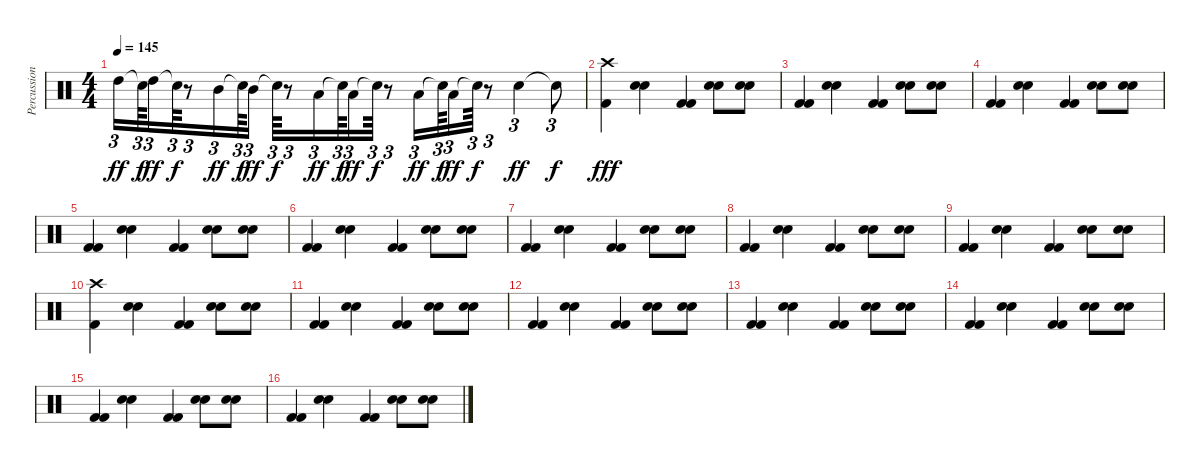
\track ("Percussion ( Keyboard )" "Percussion") {instrument percussion bank 4}
\staff {score}
\articulation defaults
\ts (4 4)
\tempo 145
\clef neutral
\ks c "High Tom (hit)".16{tu (3 2) dy ff} "Snare (hit)"{t}.64{tu (3 2) dy f} "High Tom (hit)".16{tu (3 2) dy ff} "Snare (hit)"{t}.64{tu (3 2) dy f}
r.8{tu (3 2)} "Mid Tom (hit)".16{tu (3 2) dy ff} "Snare (hit)"{t}.64{tu (3 2) dy f} "Mid Tom (hit)".16{tu (3 2) dy ff} "Snare (hit)"{t}.64{tu (3 2) dy f} r.8{tu (3 2)} "Low Tom (hit)".16{tu (3 2) dy ff} "Snare (hit)"{t}.64{tu (3 2) dy f} "Low Tom (hit)".16{tu (3 2) dy ff} "Snare (hit)"{t}.64{tu (3 2) dy f} r.8{tu (3 2)} "Low Floor Tom (hit)".16{tu (3 2) dy ff} "Snare (hit)"{t}.64{tu (3 2) dy f} "Low Floor Tom (hit)".16{tu (3 2) dy ff} "Snare (hit)"{t}.64{tu (3 2) dy f} r.8{tu (3 2)} "Hand Clap (hit)".4{tu (3 2) dy ff} "Snare (hit)"{t}.8{tu (3 2) dy f} |
("Crash high (hit)" "Kick (hit) 2").4{dy fff} ("Electric Snare (hit)" "Hand Clap (hit)").4 ("Kick (hit) 2" "Kick (hit) 2").4 ("Electric Snare (hit)" "Hand Clap (hit)").8 ("Electric Snare (hit)" "Hand Clap (hit)").8 |
("Kick (hit) 2" "Kick (hit) 2").4 ("Electric Snare (hit)" "Hand Clap (hit)").4 ("Kick (hit) 2" "Kick (hit) 2").4 ("Electric Snare (hit)" "Hand Clap (hit)").8 ("Electric Snare (hit)" "Hand Clap (hit)").8 |
("Kick (hit) 2" "Kick (hit) 2").4 ("Electric Snare (hit)" "Hand Clap (hit)").4 ("Kick (hit) 2" "Kick (hit) 2").4 ("Electric Snare (hit)" "Hand Clap (hit)").8 ("Electric Snare (hit)" "Hand Clap (hit)").8 |
("Kick (hit) 2" "Kick (hit) 2").4 ("Electric Snare (hit)" "Hand Clap (hit)").4 ("Kick (hit) 2" "Kick (hit) 2").4 ("Electric Snare (hit)" "Hand Clap (hit)").8 ("Electric Snare (hit)" "Hand Clap (hit)").8 |
("Kick (hit) 2" "Kick (hit) 2").4 ("Electric Snare (hit)" "Hand Clap (hit)").4 ("Kick (hit) 2" "Kick (hit) 2").4 ("Electric Snare (hit)" "Hand Clap (hit)").8 ("Electric Snare (hit)" "Hand Clap (hit)").8 |
("Kick (hit) 2" "Kick (hit) 2").4 ("Electric Snare (hit)" "Hand Clap (hit)").4 ("Kick (hit) 2" "Kick (hit) 2").4 ("Electric Snare (hit)" "Hand Clap (hit)").8 ("Electric Snare (hit)" "Hand Clap (hit)").8 |
("Kick (hit) 2" "Kick (hit) 2").4 ("Electric Snare (hit)" "Hand Clap (hit)").4 ("Kick (hit) 2" "Kick (hit) 2").4 ("Electric Snare (hit)" "Hand Clap (hit)").8 ("Electric Snare (hit)" "Hand Clap (hit)").8 |
("Kick (hit) 2" "Kick (hit) 2").4 ("Electric Snare (hit)" "Hand Clap (hit)").4 ("Kick (hit) 2" "Kick (hit) 2").4 ("Electric Snare (hit)" "Hand Clap (hit)").8 ("Electric Snare (hit)" "Hand Clap (hit)").8 |
("Crash high (hit)" "Kick (hit) 2").4 ("Electric Snare (hit)" "Hand Clap (hit)").4 ("Kick (hit) 2" "Kick (hit) 2").4 ("Electric Snare (hit)" "Hand Clap (hit)").8 ("Electric Snare (hit)" "Hand Clap (hit)").8 |
("Kick (hit) 2" "Kick (hit) 2").4 ("Electric Snare (hit)" "Hand Clap (hit)").4 ("Kick (hit) 2" "Kick (hit) 2").4 ("Electric Snare (hit)" "Hand Clap (hit)").8 ("Electric Snare (hit)" "Hand Clap (hit)").8 |
("Kick (hit) 2" "Kick (hit) 2").4 ("Electric Snare (hit)" "Hand Clap (hit)").4 ("Kick (hit) 2" "Kick (hit) 2").4 ("Electric Snare (hit)" "Hand Clap (hit)").8 ("Electric Snare (hit)" "Hand Clap (hit)").8 |
("Kick (hit) 2" "Kick (hit) 2").4 ("Electric Snare (hit)" "Hand Clap (hit)").4 ("Kick (hit) 2" "Kick (hit) 2").4 ("Electric Snare (hit)" "Hand Clap (hit)").8 ("Electric Snare (hit)" "Hand Clap (hit)").8 |
("Kick (hit) 2" "Kick (hit) 2").4 ("Electric Snare (hit)" "Hand Clap (hit)").4 ("Kick (hit) 2" "Kick (hit) 2").4 ("Electric Snare (hit)" "Hand Clap (hit)").8 ("Electric Snare (hit)" "Hand Clap (hit)").8 |
("Kick (hit) 2" "Kick (hit) 2").4 ("Electric Snare (hit)" "Hand Clap (hit)").4 ("Kick (hit) 2" "Kick (hit) 2").4 ("Electric Snare (hit)" "Hand Clap (hit)").8 ("Electric Snare (hit)" "Hand Clap (hit)").8 |
("Kick (hit) 2" "Kick (hit) 2").4 ("Electric Snare (hit)" "Hand Clap (hit)").4 ("Kick (hit) 2" "Kick (hit) 2").4 ("Electric Snare (hit)" "Hand Clap (hit)").8 ("Electric Snare (hit)" "Hand Clap (hit)").8
